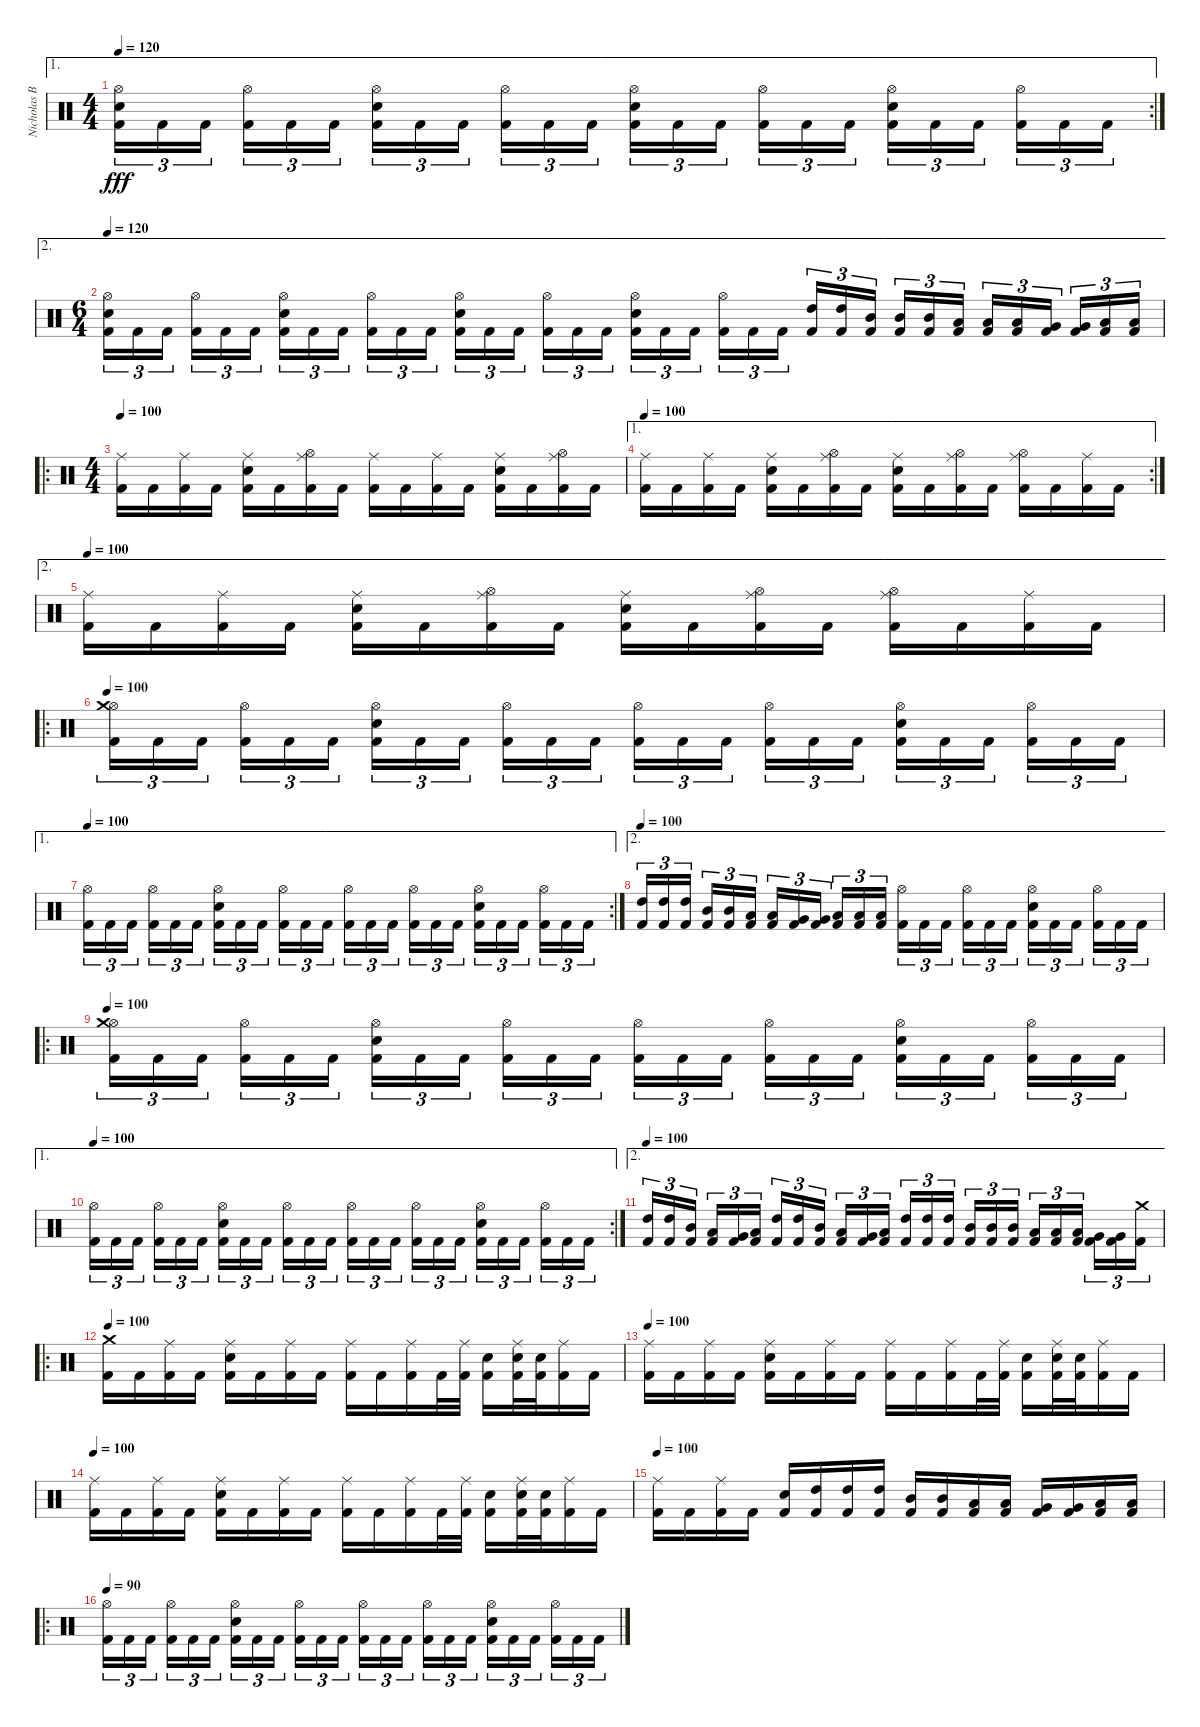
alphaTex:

\track ("Nicholas Barker - (Drums And Percussion)" "Nicholas B") {instrument percussion}
\staff {score}
\articulation defaults
\ae 1
\rc 2
\ts (4 4)
\tempo 120
\clef neutral
\ks c
("Hi-Hat (open)" "Electric Snare (hit)" "Kick (hit) 2").16{tu (3 2) dy fff} "Kick (hit) 2".16{tu (3 2)} "Kick (hit) 2".16{tu (3 2)} ("Hi-Hat (open)" "Kick (hit) 2").16{tu (3 2)} "Kick (hit) 2".16{tu (3 2)} "Kick (hit) 2".16{tu (3 2)} ("Hi-Hat (open)" "Electric Snare (hit)" "Kick (hit) 2").16{tu (3 2)} "Kick (hit) 2".16{tu (3 2)} "Kick (hit) 2".16{tu (3 2)} ("Hi-Hat (open)" "Kick (hit) 2").16{tu (3 2)} "Kick (hit) 2".16{tu (3 2)} "Kick (hit) 2".16{tu (3 2)} ("Hi-Hat (open)" "Electric Snare (hit)" "Kick (hit) 2").16{tu (3 2)} "Kick (hit) 2".16{tu (3 2)} "Kick (hit) 2".16{tu (3 2)} ("Hi-Hat (open)" "Kick (hit) 2").16{tu (3 2)} "Kick (hit) 2".16{tu (3 2)} "Kick (hit) 2".16{tu (3 2)} ("Hi-Hat (open)" "Electric Snare (hit)" "Kick (hit) 2").16{tu (3 2)} "Kick (hit) 2".16{tu (3 2)} "Kick (hit) 2".16{tu (3 2)} ("Hi-Hat (open)" "Kick (hit) 2").16{tu (3 2)} "Kick (hit) 2".16{tu (3 2)} "Kick (hit) 2".16{tu (3 2)} |
\ae 2
\ts (6 4)
\tempo 120
("Electric Snare (hit)" "Hi-Hat (open)" "Kick (hit) 2").16{tu (3 2)} "Kick (hit) 2".16{tu (3 2)} "Kick (hit) 2".16{tu (3 2)} ("Hi-Hat (open)" "Kick (hit) 2").16{tu (3 2)} "Kick (hit) 2".16{tu (3 2)} "Kick (hit) 2".16{tu (3 2)} ("Electric Snare (hit)" "Hi-Hat (open)" "Kick (hit) 2").16{tu (3 2)} "Kick (hit) 2".16{tu (3 2)} "Kick (hit) 2".16{tu (3 2)} ("Hi-Hat (open)" "Kick (hit) 2").16{tu (3 2)} "Kick (hit) 2".16{tu (3 2)} "Kick (hit) 2".16{tu (3 2)} ("Electric Snare (hit)" "Hi-Hat (open)" "Kick (hit) 2").16{tu (3 2)} "Kick (hit) 2".16{tu (3 2)} "Kick (hit) 2".16{tu (3 2)} ("Hi-Hat (open)" "Kick (hit) 2").16{tu (3 2)} "Kick (hit) 2".16{tu (3 2)} "Kick (hit) 2".16{tu (3 2)} ("Electric Snare (hit)" "Hi-Hat (open)" "Kick (hit) 2").16{tu (3 2)} "Kick (hit) 2".16{tu (3 2)} "Kick (hit) 2".16{tu (3 2)} ("Hi-Hat (open)" "Kick (hit) 2").16{tu (3 2)} "Kick (hit) 2".16{tu (3 2)} "Kick (hit) 2".16{tu (3 2)} ("High Tom (hit)" "Kick (hit) 2").16{tu (3 2)} ("High Tom (hit)" "Kick (hit) 2").16{tu (3 2)} ("Mid Tom (hit)" "Kick (hit) 2").16{tu (3 2)} ("Mid Tom (hit)" "Kick (hit) 2").16{tu (3 2)} ("Mid Tom (hit)" "Kick (hit) 2").16{tu (3 2)} ("Low Tom (hit)" "Kick (hit) 2").16{tu (3 2)} ("Low Tom (hit)" "Kick (hit) 2").16{tu (3 2)} ("Low Tom (hit)" "Kick (hit) 2").16{tu (3 2)} ("Very Low Tom (hit)" "Kick (hit) 2").16{tu (3 2)} ("Very Low Tom (hit)" "Kick (hit) 2").16{tu (3 2)} ("Low Floor Tom (hit)" "Kick (hit) 2").16{tu (3 2)} ("Low Floor Tom (hit)" "Kick (hit) 2").16{tu (3 2)} |
\ro
\ts (4 4)
\tempo 100
("Ride (middle)" "Kick (hit) 2").16 "Kick (hit) 2".16 ("Ride (middle)" "Kick (hit) 2").16 "Kick (hit) 2".16 ("Ride (middle)" "Electric Snare (hit)" "Kick (hit) 2").16 "Kick (hit) 2".16 ("Ride (middle)" "Hi-Hat (open)" "Kick (hit) 2").16 "Kick (hit) 2".16 ("Ride (middle)" "Kick (hit) 2").16 "Kick (hit) 2".16 ("Ride (middle)" "Kick (hit) 2").16 "Kick (hit) 2".16 ("Ride (middle)" "Electric Snare (hit)" "Kick (hit) 2").16 "Kick (hit) 2".16 ("Ride (middle)" "Hi-Hat (open)" "Kick (hit) 2").16 "Kick (hit) 2".16 |
\ae 1
\rc 2
\tempo 100
("Ride (middle)" "Kick (hit) 2").16 "Kick (hit) 2".16 ("Ride (middle)" "Kick (hit) 2").16 "Kick (hit) 2".16 ("Ride (middle)" "Electric Snare (hit)" "Kick (hit) 2").16 "Kick (hit) 2".16 ("Ride (middle)" "Hi-Hat (open)" "Kick (hit) 2").16 "Kick (hit) 2".16 ("Ride (middle)" "Electric Snare (hit)" "Kick (hit) 2").16 "Kick (hit) 2".16 ("Ride (middle)" "Hi-Hat (open)" "Kick (hit) 2").16 "Kick (hit) 2".16 ("Ride (middle)" "Hi-Hat (open)" "Kick (hit) 2").16 "Kick (hit) 2".16 ("Ride (middle)" "Kick (hit) 2").16 "Kick (hit) 2".16 |
\ae 2
\tempo 100
("Ride (middle)" "Kick (hit) 2").16 "Kick (hit) 2".16 ("Ride (middle)" "Kick (hit) 2").16 "Kick (hit) 2".16 ("Ride (middle)" "Electric Snare (hit)" "Kick (hit) 2").16 "Kick (hit) 2".16 ("Ride (middle)" "Hi-Hat (open)" "Kick (hit) 2").16 "Kick (hit) 2".16 ("Ride (middle)" "Electric Snare (hit)" "Kick (hit) 2").16 "Kick (hit) 2".16 ("Ride (middle)" "Hi-Hat (open)" "Kick (hit) 2").16 "Kick (hit) 2".16 ("Ride (middle)" "Hi-Hat (open)" "Kick (hit) 2").16 "Kick (hit) 2".16 ("Ride (middle)" "Kick (hit) 2").16 "Kick (hit) 2".16 |
\ro
\tempo 100
("Hi-Hat (open)" "Crash medium (hit)" "Kick (hit) 2").16{tu (3 2)} "Kick (hit) 2".16{tu (3 2)} "Kick (hit) 2".16{tu (3 2)} ("Hi-Hat (open)" "Kick (hit) 2").16{tu (3 2)} "Kick (hit) 2".16{tu (3 2)} "Kick (hit) 2".16{tu (3 2)} ("Hi-Hat (open)" "Electric Snare (hit)" "Kick (hit) 2").16{tu (3 2)} "Kick (hit) 2".16{tu (3 2)} "Kick (hit) 2".16{tu (3 2)} ("Hi-Hat (open)" "Kick (hit) 2").16{tu (3 2)} "Kick (hit) 2".16{tu (3 2)} "Kick (hit) 2".16{tu (3 2)} ("Hi-Hat (open)" "Kick (hit) 2").16{tu (3 2)} "Kick (hit) 2".16{tu (3 2)} "Kick (hit) 2".16{tu (3 2)} ("Hi-Hat (open)" "Kick (hit) 2").16{tu (3 2)} "Kick (hit) 2".16{tu (3 2)} "Kick (hit) 2".16{tu (3 2)} ("Hi-Hat (open)" "Electric Snare (hit)" "Kick (hit) 2").16{tu (3 2)} "Kick (hit) 2".16{tu (3 2)} "Kick (hit) 2".16{tu (3 2)} ("Hi-Hat (open)" "Kick (hit) 2").16{tu (3 2)} "Kick (hit) 2".16{tu (3 2)} "Kick (hit) 2".16{tu (3 2)} |
\ae 1
\rc 2
\tempo 100
("Hi-Hat (open)" "Kick (hit) 2").16{tu (3 2)} "Kick (hit) 2".16{tu (3 2)} "Kick (hit) 2".16{tu (3 2)} ("Hi-Hat (open)" "Kick (hit) 2").16{tu (3 2)} "Kick (hit) 2".16{tu (3 2)} "Kick (hit) 2".16{tu (3 2)} ("Hi-Hat (open)" "Electric Snare (hit)" "Kick (hit) 2").16{tu (3 2)} "Kick (hit) 2".16{tu (3 2)} "Kick (hit) 2".16{tu (3 2)} ("Hi-Hat (open)" "Kick (hit) 2").16{tu (3 2)} "Kick (hit) 2".16{tu (3 2)} "Kick (hit) 2".16{tu (3 2)} ("Hi-Hat (open)" "Kick (hit) 2").16{tu (3 2)} "Kick (hit) 2".16{tu (3 2)} "Kick (hit) 2".16{tu (3 2)} ("Hi-Hat (open)" "Kick (hit) 2").16{tu (3 2)} "Kick (hit) 2".16{tu (3 2)} "Kick (hit) 2".16{tu (3 2)} ("Hi-Hat (open)" "Electric Snare (hit)" "Kick (hit) 2").16{tu (3 2)} "Kick (hit) 2".16{tu (3 2)} "Kick (hit) 2".16{tu (3 2)} ("Hi-Hat (open)" "Kick (hit) 2").16{tu (3 2)} "Kick (hit) 2".16{tu (3 2)} "Kick (hit) 2".16{tu (3 2)} |
\ae 2
\tempo 100
("High Tom (hit)" "Kick (hit) 2").16{tu (3 2)} ("High Tom (hit)" "Kick (hit) 2").16{tu (3 2)} ("High Tom (hit)" "Kick (hit) 2").16{tu (3 2)} ("Mid Tom (hit)" "Kick (hit) 2").16{tu (3 2)} ("Mid Tom (hit)" "Kick (hit) 2").16{tu (3 2)} ("Low Tom (hit)" "Kick (hit) 2").16{tu (3 2)} ("Low Tom (hit)" "Kick (hit) 2").16{tu (3 2)} ("Very Low Tom (hit)" "Kick (hit) 2").16{tu (3 2)} ("Very Low Tom (hit)" "Kick (hit) 2").16{tu (3 2)} ("Low Floor Tom (hit)" "Kick (hit) 2").16{tu (3 2)} ("Low Floor Tom (hit)" "Kick (hit) 2").16{tu (3 2)} ("Low Floor Tom (hit)" "Kick (hit) 2").16{tu (3 2)} ("Hi-Hat (open)" "Kick (hit) 2").16{tu (3 2)} "Kick (hit) 2".16{tu (3 2)} "Kick (hit) 2".16{tu (3 2)} ("Hi-Hat (open)" "Kick (hit) 2").16{tu (3 2)} "Kick (hit) 2".16{tu (3 2)} "Kick (hit) 2".16{tu (3 2)} ("Hi-Hat (open)" "Electric Snare (hit)" "Kick (hit) 2").16{tu (3 2)} "Kick (hit) 2".16{tu (3 2)} "Kick (hit) 2".16{tu (3 2)} ("Hi-Hat (open)" "Kick (hit) 2").16{tu (3 2)} "Kick (hit) 2".16{tu (3 2)} "Kick (hit) 2".16{tu (3 2)} |
\ro
\tempo 100
("Hi-Hat (open)" "Crash medium (hit)" "Kick (hit) 2").16{tu (3 2)} "Kick (hit) 2".16{tu (3 2)} "Kick (hit) 2".16{tu (3 2)} ("Hi-Hat (open)" "Kick (hit) 2").16{tu (3 2)} "Kick (hit) 2".16{tu (3 2)} "Kick (hit) 2".16{tu (3 2)} ("Hi-Hat (open)" "Electric Snare (hit)" "Kick (hit) 2").16{tu (3 2)} "Kick (hit) 2".16{tu (3 2)} "Kick (hit) 2".16{tu (3 2)} ("Hi-Hat (open)" "Kick (hit) 2").16{tu (3 2)} "Kick (hit) 2".16{tu (3 2)} "Kick (hit) 2".16{tu (3 2)} ("Hi-Hat (open)" "Kick (hit) 2").16{tu (3 2)} "Kick (hit) 2".16{tu (3 2)} "Kick (hit) 2".16{tu (3 2)} ("Hi-Hat (open)" "Kick (hit) 2").16{tu (3 2)} "Kick (hit) 2".16{tu (3 2)} "Kick (hit) 2".16{tu (3 2)} ("Hi-Hat (open)" "Electric Snare (hit)" "Kick (hit) 2").16{tu (3 2)} "Kick (hit) 2".16{tu (3 2)} "Kick (hit) 2".16{tu (3 2)} ("Hi-Hat (open)" "Kick (hit) 2").16{tu (3 2)} "Kick (hit) 2".16{tu (3 2)} "Kick (hit) 2".16{tu (3 2)} |
\ae 1
\rc 2
\tempo 100
("Hi-Hat (open)" "Kick (hit) 2").16{tu (3 2)} "Kick (hit) 2".16{tu (3 2)} "Kick (hit) 2".16{tu (3 2)} ("Hi-Hat (open)" "Kick (hit) 2").16{tu (3 2)} "Kick (hit) 2".16{tu (3 2)} "Kick (hit) 2".16{tu (3 2)} ("Hi-Hat (open)" "Electric Snare (hit)" "Kick (hit) 2").16{tu (3 2)} "Kick (hit) 2".16{tu (3 2)} "Kick (hit) 2".16{tu (3 2)} ("Hi-Hat (open)" "Kick (hit) 2").16{tu (3 2)} "Kick (hit) 2".16{tu (3 2)} "Kick (hit) 2".16{tu (3 2)} ("Hi-Hat (open)" "Kick (hit) 2").16{tu (3 2)} "Kick (hit) 2".16{tu (3 2)} "Kick (hit) 2".16{tu (3 2)} ("Hi-Hat (open)" "Kick (hit) 2").16{tu (3 2)} "Kick (hit) 2".16{tu (3 2)} "Kick (hit) 2".16{tu (3 2)} ("Hi-Hat (open)" "Electric Snare (hit)" "Kick (hit) 2").16{tu (3 2)} "Kick (hit) 2".16{tu (3 2)} "Kick (hit) 2".16{tu (3 2)} ("Hi-Hat (open)" "Kick (hit) 2").16{tu (3 2)} "Kick (hit) 2".16{tu (3 2)} "Kick (hit) 2".16{tu (3 2)} |
\ae 2
\tempo 100
("High Tom (hit)" "Kick (hit) 2").16{tu (3 2)} ("High Tom (hit)" "Kick (hit) 2").16{tu (3 2)} ("Mid Tom (hit)" "Kick (hit) 2").16{tu (3 2)} ("Low Tom (hit)" "Kick (hit) 2").16{tu (3 2)} ("Very Low Tom (hit)" "Kick (hit) 2").16{tu (3 2)} ("Low Floor Tom (hit)" "Kick (hit) 2").16{tu (3 2)} ("High Tom (hit)" "Kick (hit) 2").16{tu (3 2)} ("High Tom (hit)" "Kick (hit) 2").16{tu (3 2)} ("Mid Tom (hit)" "Kick (hit) 2").16{tu (3 2)} ("Low Tom (hit)" "Kick (hit) 2").16{tu (3 2)} ("Very Low Tom (hit)" "Kick (hit) 2").16{tu (3 2)} ("Low Floor Tom (hit)" "Kick (hit) 2").16{tu (3 2)} ("High Tom (hit)" "Kick (hit) 2").16{tu (3 2)} ("High Tom (hit)" "Kick (hit) 2").16{tu (3 2)} ("High Tom (hit)" "Kick (hit) 2").16{tu (3 2)} ("Mid Tom (hit)" "Kick (hit) 2").16{tu (3 2)} ("Mid Tom (hit)" "Kick (hit) 2").16{tu (3 2)} ("Mid Tom (hit)" "Kick (hit) 2").16{tu (3 2)} ("Low Tom (hit)" "Kick (hit) 2").16{tu (3 2)} ("Low Tom (hit)" "Kick (hit) 2").16{tu (3 2)} ("Low Tom (hit)" "Kick (hit) 2").16{tu (3 2)} ("Very Low Tom (hit)" "Kick (hit) 2").16{tu (3 2)} ("Very Low Tom (hit)" "Kick (hit) 2").16{tu (3 2)} ("Crash medium (hit)" "Kick (hit) 2").16{tu (3 2)} |
\ro
\tempo 100
("Crash medium (hit)" "Kick (hit) 2").16 "Kick (hit) 2".16 ("Ride (middle)" "Kick (hit) 2").16 "Kick (hit) 2".16 ("Ride (middle)" "Electric Snare (hit)" "Kick (hit) 2").16 "Kick (hit) 2".16 ("Ride (middle)" "Kick (hit) 2").16 "Kick (hit) 2".16 ("Ride (middle)" "Kick (hit) 2").16 "Kick (hit) 2".16 ("Ride (middle)" "Kick (hit) 2").16 "Kick (hit) 2".32 ("Ride (middle)" "Kick (hit) 2").32 ("Electric Snare (hit)" "Kick (hit) 2").16 ("Ride (middle)" "Electric Snare (hit)" "Kick (hit) 2").32 ("Electric Snare (hit)" "Kick (hit) 2").32 ("Ride (middle)" "Kick (hit) 2").16 "Kick (hit) 2".16 |
\tempo 100
("Ride (middle)" "Kick (hit) 2").16 "Kick (hit) 2".16 ("Ride (middle)" "Kick (hit) 2").16 "Kick (hit) 2".16 ("Ride (middle)" "Electric Snare (hit)" "Kick (hit) 2").16 "Kick (hit) 2".16 ("Ride (middle)" "Kick (hit) 2").16 "Kick (hit) 2".16 ("Ride (middle)" "Kick (hit) 2").16 "Kick (hit) 2".16 ("Ride (middle)" "Kick (hit) 2").16 "Kick (hit) 2".32 ("Ride (middle)" "Kick (hit) 2").32 ("Electric Snare (hit)" "Kick (hit) 2").16 ("Ride (middle)" "Electric Snare (hit)" "Kick (hit) 2").32 ("Electric Snare (hit)" "Kick (hit) 2").32 ("Ride (middle)" "Kick (hit) 2").16 "Kick (hit) 2".16 |
\tempo 100
("Ride (middle)" "Kick (hit) 2").16 "Kick (hit) 2".16 ("Ride (middle)" "Kick (hit) 2").16 "Kick (hit) 2".16 ("Ride (middle)" "Electric Snare (hit)" "Kick (hit) 2").16 "Kick (hit) 2".16 ("Ride (middle)" "Kick (hit) 2").16 "Kick (hit) 2".16 ("Ride (middle)" "Kick (hit) 2").16 "Kick (hit) 2".16 ("Ride (middle)" "Kick (hit) 2").16 "Kick (hit) 2".32 ("Ride (middle)" "Kick (hit) 2").32 ("Electric Snare (hit)" "Kick (hit) 2").16 ("Ride (middle)" "Electric Snare (hit)" "Kick (hit) 2").32 ("Electric Snare (hit)" "Kick (hit) 2").32 ("Ride (middle)" "Kick (hit) 2").16 "Kick (hit) 2".16 |
\tempo 100
("Ride (middle)" "Kick (hit) 2").16 "Kick (hit) 2".16 ("Ride (middle)" "Kick (hit) 2").16 "Kick (hit) 2".16 ("Electric Snare (hit)" "Kick (hit) 2").16 ("High Tom (hit)" "Kick (hit) 2").16 ("High Tom (hit)" "Kick (hit) 2").16 ("High Tom (hit)" "Kick (hit) 2").16 ("Mid Tom (hit)" "Kick (hit) 2").16 ("Mid Tom (hit)" "Kick (hit) 2").16 ("Low Tom (hit)" "Kick (hit) 2").16 ("Low Tom (hit)" "Kick (hit) 2").16 ("Very Low Tom (hit)" "Kick (hit) 2").16 ("Very Low Tom (hit)" "Kick (hit) 2").16 ("Low Floor Tom (hit)" "Kick (hit) 2").16 ("Low Floor Tom (hit)" "Kick (hit) 2").16 |
\ro
\tempo 100
\tempo 90
("Hi-Hat (open)" "Kick (hit) 2").16{tu (3 2)} "Kick (hit) 2".16{tu (3 2)} "Kick (hit) 2".16{tu (3 2)} ("Hi-Hat (open)" "Kick (hit) 2").16{tu (3 2)} "Kick (hit) 2".16{tu (3 2)} "Kick (hit) 2".16{tu (3 2)} ("Hi-Hat (open)" "Electric Snare (hit)" "Kick (hit) 2").16{tu (3 2)} "Kick (hit) 2".16{tu (3 2)} "Kick (hit) 2".16{tu (3 2)} ("Hi-Hat (open)" "Kick (hit) 2").16{tu (3 2)} "Kick (hit) 2".16{tu (3 2)} "Kick (hit) 2".16{tu (3 2)} ("Hi-Hat (open)" "Kick (hit) 2").16{tu (3 2)} "Kick (hit) 2".16{tu (3 2)} "Kick (hit) 2".16{tu (3 2)} ("Hi-Hat (open)" "Kick (hit) 2").16{tu (3 2)} "Kick (hit) 2".16{tu (3 2)} "Kick (hit) 2".16{tu (3 2)} ("Hi-Hat (open)" "Electric Snare (hit)" "Kick (hit) 2").16{tu (3 2)} "Kick (hit) 2".16{tu (3 2)} "Kick (hit) 2".16{tu (3 2)} ("Hi-Hat (open)" "Kick (hit) 2").16{tu (3 2)} "Kick (hit) 2".16{tu (3 2)} "Kick (hit) 2".16{tu (3 2)}
